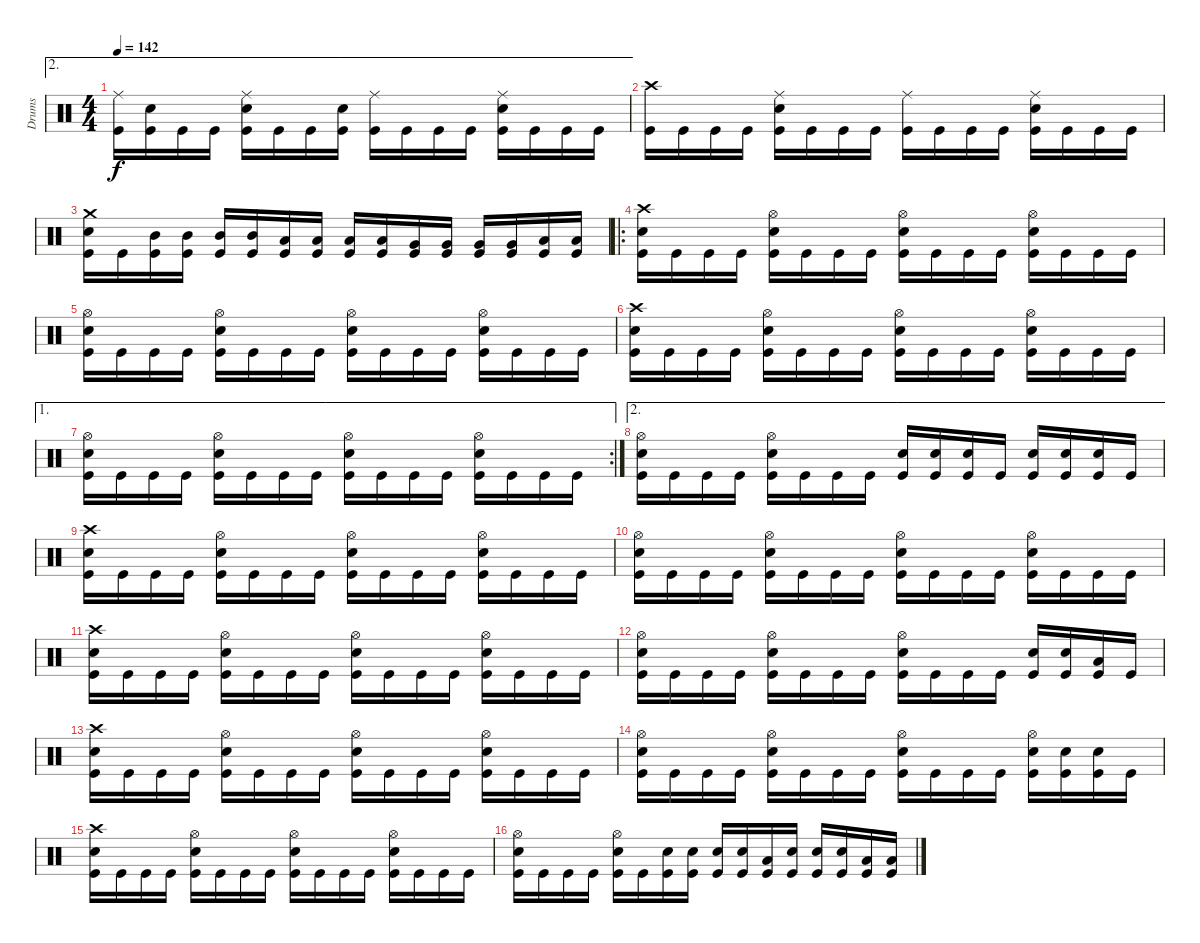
\track ("Drums" "Drums") {instrument percussion}
\staff {score}
\articulation defaults
\ae 2
\ts (4 4)
\tempo 142
\clef neutral
\ks c
("Ride (middle)" "Kick (hit)").16{dy f} ("Electric Snare (hit)" "Kick (hit)").16 "Kick (hit)".16 "Kick (hit)".16 ("Ride (middle)" "Electric Snare (hit)" "Kick (hit)").16 "Kick (hit)".16 "Kick (hit)".16 ("Electric Snare (hit)" "Kick (hit)").16 ("Ride (middle)" "Kick (hit)").16 "Kick (hit)".16 "Kick (hit)".16 "Kick (hit)".16 ("Ride (middle)" "Electric Snare (hit)" "Kick (hit)").16 "Kick (hit)".16 "Kick (hit)".16 "Kick (hit)".16 |
("Crash high (hit)" "Kick (hit)").16 "Kick (hit)".16 "Kick (hit)".16 "Kick (hit)".16 ("Ride (middle)" "Electric Snare (hit)" "Kick (hit)").16 "Kick (hit)".16 "Kick (hit)".16 "Kick (hit)".16 ("Ride (middle)" "Kick (hit)").16 "Kick (hit)".16 "Kick (hit)".16 "Kick (hit)".16 ("Ride (middle)" "Electric Snare (hit)" "Kick (hit)").16 "Kick (hit)".16 "Kick (hit)".16 "Kick (hit)".16 |
("Crash medium (hit)" "Electric Snare (hit)" "Kick (hit)").16 "Kick (hit)".16 ("Mid Tom (hit)" "Kick (hit)").16 ("Mid Tom (hit)" "Kick (hit)").16 ("Mid Tom (hit)" "Kick (hit)").16 ("Mid Tom (hit)" "Kick (hit)").16 ("Low Tom (hit)" "Kick (hit)").16 ("Low Tom (hit)" "Kick (hit)").16 ("Low Tom (hit)" "Kick (hit)").16 ("Low Tom (hit)" "Kick (hit)").16 ("Very Low Tom (hit)" "Kick (hit)").16 ("Very Low Tom (hit)" "Kick (hit)").16 ("Very Low Tom (hit)" "Kick (hit)").16 ("Very Low Tom (hit)" "Kick (hit)").16 ("Low Floor Tom (hit)" "Kick (hit)").16 ("Low Floor Tom (hit)" "Kick (hit)").16 |
\ro
("Crash high (hit)" "Electric Snare (hit)" "Kick (hit)").16 "Kick (hit)".16 "Kick (hit)".16 "Kick (hit)".16 ("Hi-Hat (open)" "Electric Snare (hit)" "Kick (hit)").16 "Kick (hit)".16 "Kick (hit)".16 "Kick (hit)".16 ("Hi-Hat (open)" "Electric Snare (hit)" "Kick (hit)").16 "Kick (hit)".16 "Kick (hit)".16 "Kick (hit)".16 ("Hi-Hat (open)" "Electric Snare (hit)" "Kick (hit)").16 "Kick (hit)".16 "Kick (hit)".16 "Kick (hit)".16 |
("Hi-Hat (open)" "Electric Snare (hit)" "Kick (hit)").16 "Kick (hit)".16 "Kick (hit)".16 "Kick (hit)".16 ("Hi-Hat (open)" "Electric Snare (hit)" "Kick (hit)").16 "Kick (hit)".16 "Kick (hit)".16 "Kick (hit)".16 ("Hi-Hat (open)" "Electric Snare (hit)" "Kick (hit)").16 "Kick (hit)".16 "Kick (hit)".16 "Kick (hit)".16 ("Hi-Hat (open)" "Electric Snare (hit)" "Kick (hit)").16 "Kick (hit)".16 "Kick (hit)".16 "Kick (hit)".16 |
("Crash high (hit)" "Electric Snare (hit)" "Kick (hit)").16 "Kick (hit)".16 "Kick (hit)".16 "Kick (hit)".16 ("Hi-Hat (open)" "Electric Snare (hit)" "Kick (hit)").16 "Kick (hit)".16 "Kick (hit)".16 "Kick (hit)".16 ("Hi-Hat (open)" "Electric Snare (hit)" "Kick (hit)").16 "Kick (hit)".16 "Kick (hit)".16 "Kick (hit)".16 ("Hi-Hat (open)" "Electric Snare (hit)" "Kick (hit)").16 "Kick (hit)".16 "Kick (hit)".16 "Kick (hit)".16 |
\ae 1
\rc 2
("Hi-Hat (open)" "Electric Snare (hit)" "Kick (hit)").16 "Kick (hit)".16 "Kick (hit)".16 "Kick (hit)".16 ("Hi-Hat (open)" "Electric Snare (hit)" "Kick (hit)").16 "Kick (hit)".16 "Kick (hit)".16 "Kick (hit)".16 ("Hi-Hat (open)" "Electric Snare (hit)" "Kick (hit)").16 "Kick (hit)".16 "Kick (hit)".16 "Kick (hit)".16 ("Hi-Hat (open)" "Electric Snare (hit)" "Kick (hit)").16 "Kick (hit)".16 "Kick (hit)".16 "Kick (hit)".16 |
\ae 2
("Hi-Hat (open)" "Electric Snare (hit)" "Kick (hit)").16 "Kick (hit)".16 "Kick (hit)".16 "Kick (hit)".16 ("Hi-Hat (open)" "Electric Snare (hit)" "Kick (hit)").16 "Kick (hit)".16 "Kick (hit)".16 "Kick (hit)".16 ("Electric Snare (hit)" "Kick (hit)").16 ("Electric Snare (hit)" "Kick (hit)").16 ("Electric Snare (hit)" "Kick (hit)").16 "Kick (hit)".16 ("Electric Snare (hit)" "Kick (hit)").16 ("Electric Snare (hit)" "Kick (hit)").16 ("Electric Snare (hit)" "Kick (hit)").16 "Kick (hit)".16 |
("Crash high (hit)" "Electric Snare (hit)" "Kick (hit)").16 "Kick (hit)".16 "Kick (hit)".16 "Kick (hit)".16 ("Hi-Hat (open)" "Electric Snare (hit)" "Kick (hit)").16 "Kick (hit)".16 "Kick (hit)".16 "Kick (hit)".16 ("Hi-Hat (open)" "Electric Snare (hit)" "Kick (hit)").16 "Kick (hit)".16 "Kick (hit)".16 "Kick (hit)".16 ("Hi-Hat (open)" "Electric Snare (hit)" "Kick (hit)").16 "Kick (hit)".16 "Kick (hit)".16 "Kick (hit)".16 |
("Hi-Hat (open)" "Electric Snare (hit)" "Kick (hit)").16 "Kick (hit)".16 "Kick (hit)".16 "Kick (hit)".16 ("Hi-Hat (open)" "Electric Snare (hit)" "Kick (hit)").16 "Kick (hit)".16 "Kick (hit)".16 "Kick (hit)".16 ("Hi-Hat (open)" "Electric Snare (hit)" "Kick (hit)").16 "Kick (hit)".16 "Kick (hit)".16 "Kick (hit)".16 ("Hi-Hat (open)" "Electric Snare (hit)" "Kick (hit)").16 "Kick (hit)".16 "Kick (hit)".16 "Kick (hit)".16 |
("Crash high (hit)" "Electric Snare (hit)" "Kick (hit)").16 "Kick (hit)".16 "Kick (hit)".16 "Kick (hit)".16 ("Hi-Hat (open)" "Electric Snare (hit)" "Kick (hit)").16 "Kick (hit)".16 "Kick (hit)".16 "Kick (hit)".16 ("Hi-Hat (open)" "Electric Snare (hit)" "Kick (hit)").16 "Kick (hit)".16 "Kick (hit)".16 "Kick (hit)".16 ("Hi-Hat (open)" "Electric Snare (hit)" "Kick (hit)").16 "Kick (hit)".16 "Kick (hit)".16 "Kick (hit)".16 |
("Hi-Hat (open)" "Electric Snare (hit)" "Kick (hit)").16 "Kick (hit)".16 "Kick (hit)".16 "Kick (hit)".16 ("Hi-Hat (open)" "Electric Snare (hit)" "Kick (hit)").16 "Kick (hit)".16 "Kick (hit)".16 "Kick (hit)".16 ("Hi-Hat (open)" "Electric Snare (hit)" "Kick (hit)").16 "Kick (hit)".16 "Kick (hit)".16 "Kick (hit)".16 ("Electric Snare (hit)" "Kick (hit)").16 ("Electric Snare (hit)" "Kick (hit)").16 ("Low Tom (hit)" "Kick (hit)").16 "Kick (hit)".16 |
("Crash high (hit)" "Electric Snare (hit)" "Kick (hit)").16 "Kick (hit)".16 "Kick (hit)".16 "Kick (hit)".16 ("Hi-Hat (open)" "Electric Snare (hit)" "Kick (hit)").16 "Kick (hit)".16 "Kick (hit)".16 "Kick (hit)".16 ("Hi-Hat (open)" "Electric Snare (hit)" "Kick (hit)").16 "Kick (hit)".16 "Kick (hit)".16 "Kick (hit)".16 ("Hi-Hat (open)" "Electric Snare (hit)" "Kick (hit)").16 "Kick (hit)".16 "Kick (hit)".16 "Kick (hit)".16 |
("Hi-Hat (open)" "Electric Snare (hit)" "Kick (hit)").16 "Kick (hit)".16 "Kick (hit)".16 "Kick (hit)".16 ("Hi-Hat (open)" "Electric Snare (hit)" "Kick (hit)").16 "Kick (hit)".16 "Kick (hit)".16 "Kick (hit)".16 ("Hi-Hat (open)" "Electric Snare (hit)" "Kick (hit)").16 "Kick (hit)".16 "Kick (hit)".16 "Kick (hit)".16 ("Hi-Hat (open)" "Electric Snare (hit)" "Kick (hit)").16 ("Electric Snare (hit)" "Kick (hit)").16 ("Electric Snare (hit)" "Kick (hit)").16 "Kick (hit)".16 |
("Crash high (hit)" "Electric Snare (hit)" "Kick (hit)").16 "Kick (hit)".16 "Kick (hit)".16 "Kick (hit)".16 ("Hi-Hat (open)" "Electric Snare (hit)" "Kick (hit)").16 "Kick (hit)".16 "Kick (hit)".16 "Kick (hit)".16 ("Hi-Hat (open)" "Electric Snare (hit)" "Kick (hit)").16 "Kick (hit)".16 "Kick (hit)".16 "Kick (hit)".16 ("Hi-Hat (open)" "Electric Snare (hit)" "Kick (hit)").16 "Kick (hit)".16 "Kick (hit)".16 "Kick (hit)".16 |
("Hi-Hat (open)" "Electric Snare (hit)" "Kick (hit)").16 "Kick (hit)".16 "Kick (hit)".16 "Kick (hit)".16 ("Hi-Hat (open)" "Electric Snare (hit)" "Kick (hit)").16 "Kick (hit)".16 ("Electric Snare (hit)" "Kick (hit)").16 ("Electric Snare (hit)" "Kick (hit)").16 ("Electric Snare (hit)" "Kick (hit)").16 ("Electric Snare (hit)" "Kick (hit)").16 ("Low Tom (hit)" "Kick (hit)").16 ("Electric Snare (hit)" "Kick (hit)").16 ("Electric Snare (hit)" "Kick (hit)").16 ("Electric Snare (hit)" "Kick (hit)").16 ("Low Tom (hit)" "Kick (hit)").16 ("Low Tom (hit)" "Kick (hit)").16
